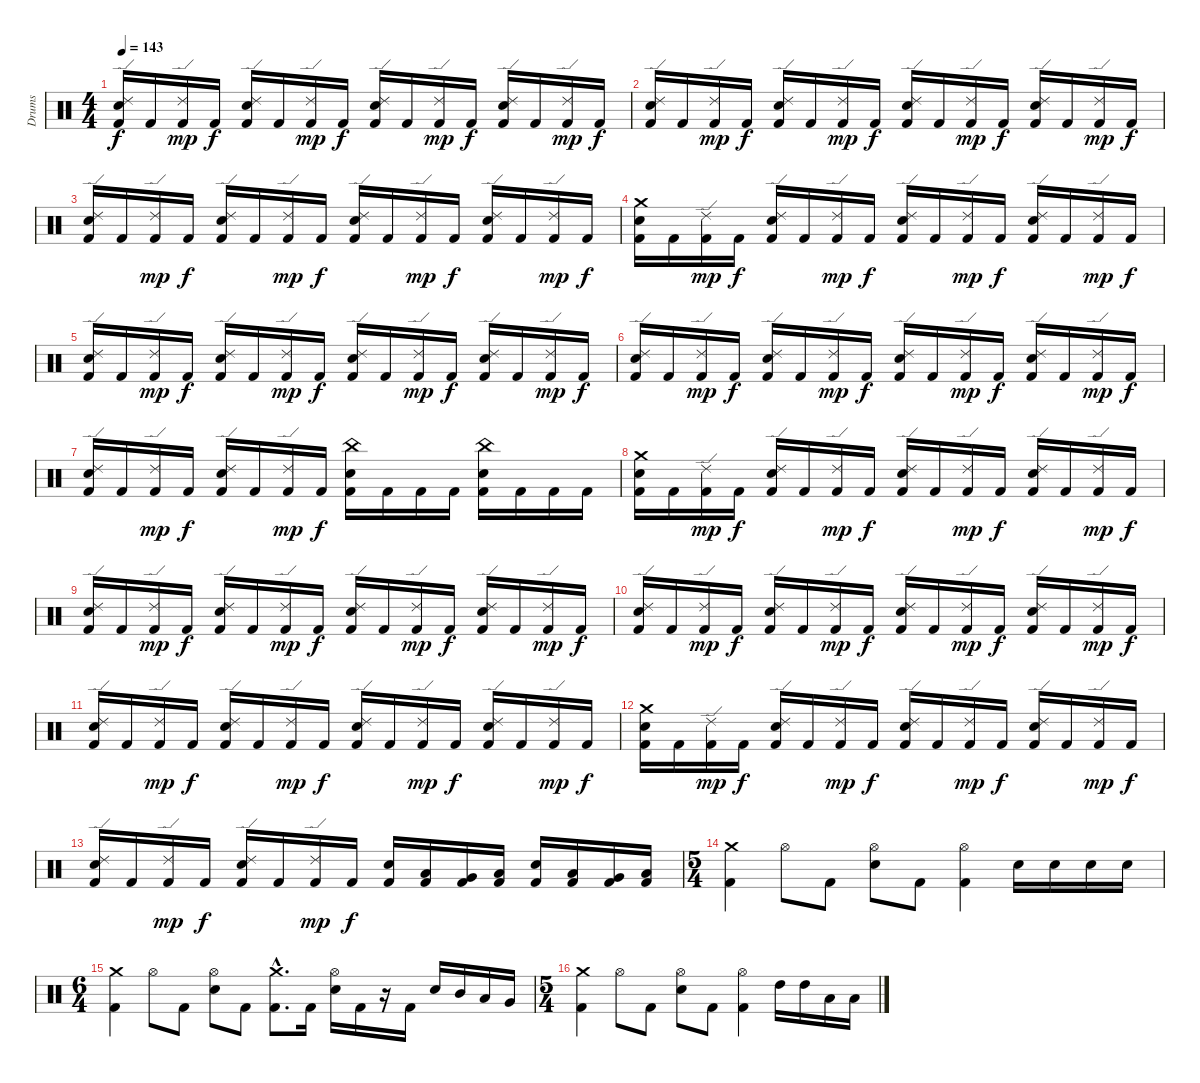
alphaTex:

\track ("Drums" "Drums") {instrument percussion}
\staff {score}
\articulation defaults
\ts (4 4)
\tempo 143
\clef neutral
\ks c
("Ride (edge) 2" "Kick (hit) 2" "Electric Snare (hit)").16{dy f} "Kick (hit) 2".16 ("Kick (hit) 2" "Ride (edge) 2").16{dy mp} "Kick (hit) 2".16{dy f} ("Kick (hit) 2" "Electric Snare (hit)" "Ride (edge) 2").16 "Kick (hit) 2".16 ("Kick (hit) 2" "Ride (edge) 2").16{dy mp} "Kick (hit) 2".16{dy f} ("Kick (hit) 2" "Electric Snare (hit)" "Ride (edge) 2").16 "Kick (hit) 2".16 ("Kick (hit) 2" "Ride (edge) 2").16{dy mp} "Kick (hit) 2".16{dy f} ("Kick (hit) 2" "Electric Snare (hit)" "Ride (edge) 2").16 "Kick (hit) 2".16 ("Kick (hit) 2" "Ride (edge) 2").16{dy mp} "Kick (hit) 2".16{dy f} |
("Ride (edge) 2" "Kick (hit) 2" "Electric Snare (hit)").16 "Kick (hit) 2".16 ("Kick (hit) 2" "Ride (edge) 2").16{dy mp} "Kick (hit) 2".16{dy f} ("Kick (hit) 2" "Electric Snare (hit)" "Ride (edge) 2").16 "Kick (hit) 2".16 ("Kick (hit) 2" "Ride (edge) 2").16{dy mp} "Kick (hit) 2".16{dy f} ("Kick (hit) 2" "Electric Snare (hit)" "Ride (edge) 2").16 "Kick (hit) 2".16 ("Kick (hit) 2" "Ride (edge) 2").16{dy mp} "Kick (hit) 2".16{dy f} ("Kick (hit) 2" "Electric Snare (hit)" "Ride (edge) 2").16 "Kick (hit) 2".16 ("Kick (hit) 2" "Ride (edge) 2").16{dy mp} "Kick (hit) 2".16{dy f} |
("Ride (edge) 2" "Kick (hit) 2" "Electric Snare (hit)").16 "Kick (hit) 2".16 ("Kick (hit) 2" "Ride (edge) 2").16{dy mp} "Kick (hit) 2".16{dy f} ("Kick (hit) 2" "Electric Snare (hit)" "Ride (edge) 2").16 "Kick (hit) 2".16 ("Kick (hit) 2" "Ride (edge) 2").16{dy mp} "Kick (hit) 2".16{dy f} ("Kick (hit) 2" "Electric Snare (hit)" "Ride (edge) 2").16 "Kick (hit) 2".16 ("Kick (hit) 2" "Ride (edge) 2").16{dy mp} "Kick (hit) 2".16{dy f} ("Kick (hit) 2" "Electric Snare (hit)" "Ride (edge) 2").16 "Kick (hit) 2".16 ("Kick (hit) 2" "Ride (edge) 2").16{dy mp} "Kick (hit) 2".16{dy f} |
("Kick (hit) 2" "Electric Snare (hit)" "Crash medium (hit)").16 "Kick (hit) 2".16 ("Kick (hit) 2" "Ride (edge) 2").16{dy mp} "Kick (hit) 2".16{dy f} ("Kick (hit) 2" "Electric Snare (hit)" "Ride (edge) 2").16 "Kick (hit) 2".16 ("Kick (hit) 2" "Ride (edge) 2").16{dy mp} "Kick (hit) 2".16{dy f} ("Kick (hit) 2" "Electric Snare (hit)" "Ride (edge) 2").16 "Kick (hit) 2".16 ("Kick (hit) 2" "Ride (edge) 2").16{dy mp} "Kick (hit) 2".16{dy f} ("Kick (hit) 2" "Electric Snare (hit)" "Ride (edge) 2").16 "Kick (hit) 2".16 ("Kick (hit) 2" "Ride (edge) 2").16{dy mp} "Kick (hit) 2".16{dy f} |
("Ride (edge) 2" "Kick (hit) 2" "Electric Snare (hit)").16 "Kick (hit) 2".16 ("Kick (hit) 2" "Ride (edge) 2").16{dy mp} "Kick (hit) 2".16{dy f} ("Kick (hit) 2" "Electric Snare (hit)" "Ride (edge) 2").16 "Kick (hit) 2".16 ("Kick (hit) 2" "Ride (edge) 2").16{dy mp} "Kick (hit) 2".16{dy f} ("Kick (hit) 2" "Electric Snare (hit)" "Ride (edge) 2").16 "Kick (hit) 2".16 ("Kick (hit) 2" "Ride (edge) 2").16{dy mp} "Kick (hit) 2".16{dy f} ("Kick (hit) 2" "Electric Snare (hit)" "Ride (edge) 2").16 "Kick (hit) 2".16 ("Kick (hit) 2" "Ride (edge) 2").16{dy mp} "Kick (hit) 2".16{dy f} |
("Ride (edge) 2" "Kick (hit) 2" "Electric Snare (hit)").16 "Kick (hit) 2".16 ("Kick (hit) 2" "Ride (edge) 2").16{dy mp} "Kick (hit) 2".16{dy f} ("Kick (hit) 2" "Electric Snare (hit)" "Ride (edge) 2").16 "Kick (hit) 2".16 ("Kick (hit) 2" "Ride (edge) 2").16{dy mp} "Kick (hit) 2".16{dy f} ("Kick (hit) 2" "Electric Snare (hit)" "Ride (edge) 2").16 "Kick (hit) 2".16 ("Kick (hit) 2" "Ride (edge) 2").16{dy mp} "Kick (hit) 2".16{dy f} ("Kick (hit) 2" "Electric Snare (hit)" "Ride (edge) 2").16 "Kick (hit) 2".16 ("Kick (hit) 2" "Ride (edge) 2").16{dy mp} "Kick (hit) 2".16{dy f} |
("Ride (edge) 2" "Kick (hit) 2" "Electric Snare (hit)").16 "Kick (hit) 2".16 ("Kick (hit) 2" "Ride (edge) 2").16{dy mp} "Kick (hit) 2".16{dy f} ("Kick (hit) 2" "Electric Snare (hit)" "Ride (edge) 2").16 "Kick (hit) 2".16 ("Kick (hit) 2" "Ride (edge) 2").16{dy mp} "Kick (hit) 2".16{dy f} ("China (hit)" "Kick (hit) 2" "Electric Snare (hit)").16 "Kick (hit) 2".16 "Kick (hit) 2".16 "Kick (hit) 2".16 ("China (hit)" "Kick (hit) 2" "Electric Snare (hit)").16 "Kick (hit) 2".16 "Kick (hit) 2".16 "Kick (hit) 2".16 |
("Kick (hit) 2" "Electric Snare (hit)" "Crash medium (hit)").16 "Kick (hit) 2".16 ("Kick (hit) 2" "Ride (edge) 2").16{dy mp} "Kick (hit) 2".16{dy f} ("Kick (hit) 2" "Electric Snare (hit)" "Ride (edge) 2").16 "Kick (hit) 2".16 ("Kick (hit) 2" "Ride (edge) 2").16{dy mp} "Kick (hit) 2".16{dy f} ("Kick (hit) 2" "Electric Snare (hit)" "Ride (edge) 2").16 "Kick (hit) 2".16 ("Kick (hit) 2" "Ride (edge) 2").16{dy mp} "Kick (hit) 2".16{dy f} ("Kick (hit) 2" "Electric Snare (hit)" "Ride (edge) 2").16 "Kick (hit) 2".16 ("Kick (hit) 2" "Ride (edge) 2").16{dy mp} "Kick (hit) 2".16{dy f} |
("Ride (edge) 2" "Kick (hit) 2" "Electric Snare (hit)").16 "Kick (hit) 2".16 ("Kick (hit) 2" "Ride (edge) 2").16{dy mp} "Kick (hit) 2".16{dy f} ("Kick (hit) 2" "Electric Snare (hit)" "Ride (edge) 2").16 "Kick (hit) 2".16 ("Kick (hit) 2" "Ride (edge) 2").16{dy mp} "Kick (hit) 2".16{dy f} ("Kick (hit) 2" "Electric Snare (hit)" "Ride (edge) 2").16 "Kick (hit) 2".16 ("Kick (hit) 2" "Ride (edge) 2").16{dy mp} "Kick (hit) 2".16{dy f} ("Kick (hit) 2" "Electric Snare (hit)" "Ride (edge) 2").16 "Kick (hit) 2".16 ("Kick (hit) 2" "Ride (edge) 2").16{dy mp} "Kick (hit) 2".16{dy f} |
("Ride (edge) 2" "Kick (hit) 2" "Electric Snare (hit)").16 "Kick (hit) 2".16 ("Kick (hit) 2" "Ride (edge) 2").16{dy mp} "Kick (hit) 2".16{dy f} ("Kick (hit) 2" "Electric Snare (hit)" "Ride (edge) 2").16 "Kick (hit) 2".16 ("Kick (hit) 2" "Ride (edge) 2").16{dy mp} "Kick (hit) 2".16{dy f} ("Kick (hit) 2" "Electric Snare (hit)" "Ride (edge) 2").16 "Kick (hit) 2".16 ("Kick (hit) 2" "Ride (edge) 2").16{dy mp} "Kick (hit) 2".16{dy f} ("Kick (hit) 2" "Electric Snare (hit)" "Ride (edge) 2").16 "Kick (hit) 2".16 ("Kick (hit) 2" "Ride (edge) 2").16{dy mp} "Kick (hit) 2".16{dy f} |
("Ride (edge) 2" "Kick (hit) 2" "Electric Snare (hit)").16 "Kick (hit) 2".16 ("Kick (hit) 2" "Ride (edge) 2").16{dy mp} "Kick (hit) 2".16{dy f} ("Kick (hit) 2" "Electric Snare (hit)" "Ride (edge) 2").16 "Kick (hit) 2".16 ("Kick (hit) 2" "Ride (edge) 2").16{dy mp} "Kick (hit) 2".16{dy f} ("Kick (hit) 2" "Electric Snare (hit)" "Ride (edge) 2").16 "Kick (hit) 2".16 ("Kick (hit) 2" "Ride (edge) 2").16{dy mp} "Kick (hit) 2".16{dy f} ("Kick (hit) 2" "Electric Snare (hit)" "Ride (edge) 2").16 "Kick (hit) 2".16 ("Kick (hit) 2" "Ride (edge) 2").16{dy mp} "Kick (hit) 2".16{dy f} |
("Kick (hit) 2" "Electric Snare (hit)" "Crash medium (hit)").16 "Kick (hit) 2".16 ("Kick (hit) 2" "Ride (edge) 2").16{dy mp} "Kick (hit) 2".16{dy f} ("Kick (hit) 2" "Electric Snare (hit)" "Ride (edge) 2").16 "Kick (hit) 2".16 ("Kick (hit) 2" "Ride (edge) 2").16{dy mp} "Kick (hit) 2".16{dy f} ("Kick (hit) 2" "Electric Snare (hit)" "Ride (edge) 2").16 "Kick (hit) 2".16 ("Kick (hit) 2" "Ride (edge) 2").16{dy mp} "Kick (hit) 2".16{dy f} ("Kick (hit) 2" "Electric Snare (hit)" "Ride (edge) 2").16 "Kick (hit) 2".16 ("Kick (hit) 2" "Ride (edge) 2").16{dy mp} "Kick (hit) 2".16{dy f} |
("Ride (edge) 2" "Kick (hit) 2" "Electric Snare (hit)").16 "Kick (hit) 2".16 ("Kick (hit) 2" "Ride (edge) 2").16{dy mp} "Kick (hit) 2".16{dy f} ("Kick (hit) 2" "Electric Snare (hit)" "Ride (edge) 2").16 "Kick (hit) 2".16 ("Kick (hit) 2" "Ride (edge) 2").16{dy mp} "Kick (hit) 2".16{dy f} ("Kick (hit) 2" "Electric Snare (hit)").16 ("Kick (hit) 2" "Low Tom (hit)").16 ("Kick (hit) 2" "Very Low Tom (hit)").16 ("Kick (hit) 2" "Low Floor Tom (hit)").16 ("Kick (hit) 2" "Electric Snare (hit)").16 ("Kick (hit) 2" "Low Tom (hit)").16 ("Kick (hit) 2" "Very Low Tom (hit)").16 ("Kick (hit) 2" "Low Floor Tom (hit)").16 |
\ts (5 4)
("Crash medium (hit)" "Kick (hit) 2").4 "Hi-Hat (open)".8 "Kick (hit) 2".8 ("Hi-Hat (open)" "Electric Snare (hit)").8 "Kick (hit) 2".8 ("Hi-Hat (open)" "Kick (hit) 2").4 "Electric Snare (hit)".16 "Electric Snare (hit)".16 "Electric Snare (hit)".16 "Electric Snare (hit)".16 |
\ts (6 4)
("Crash medium (hit)" "Kick (hit) 2").4 "Hi-Hat (open)".8 "Kick (hit) 2".8 ("Hi-Hat (open)" "Electric Snare (hit)").8 "Kick (hit) 2".8 ("Crash medium (hit)" "Kick (hit) 2"{hac}).8{d} "Kick (hit) 2".16 ("Hi-Hat (open)" "Electric Snare (hit)").16 "Kick (hit) 2".16 r.16 "Kick (hit) 2".16 "Electric Snare (hit)".16 "Mid Tom (hit)".16 "Low Tom (hit)".16 "Very Low Tom (hit)".16 |
\ts (5 4)
("Crash medium (hit)" "Kick (hit) 2").4 "Hi-Hat (open)".8 "Kick (hit) 2".8 ("Hi-Hat (open)" "Electric Snare (hit)").8 "Kick (hit) 2".8 ("Hi-Hat (open)" "Kick (hit) 2").4 "High Tom (hit)".16 "High Tom (hit)".16 "Low Tom (hit)".16 "Low Tom (hit)".16
